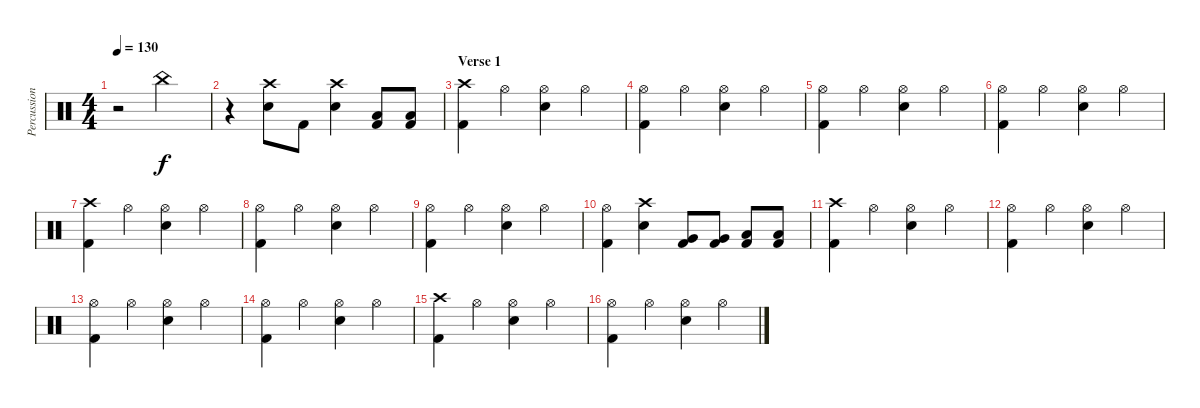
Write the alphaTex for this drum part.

\track ("Percussion" "Percussion") {instrument percussion}
\staff {score}
\articulation defaults
\ts (4 4)
\tempo 130
\clef neutral
\ks c
r.2{dy f} "China (hit)".2 |
r.4 ("Crash high (hit)" "Snare (hit) 2").8 "Kick (hit) 2".8 ("Crash high (hit)" "Snare (hit) 2").4 ("Low Floor Tom (hit)" "Kick (hit) 2").8 ("Low Floor Tom (hit)" "Kick (hit) 2").8 |
\section ("" "Verse 1")
("Crash high (hit)" "Kick (hit) 2").4 "Hi-Hat (open)".4 ("Hi-Hat (open)" "Snare (hit) 2").4 "Hi-Hat (open)".4 |
("Hi-Hat (open)" "Kick (hit) 2").4 "Hi-Hat (open)".4 ("Hi-Hat (open)" "Snare (hit) 2").4 "Hi-Hat (open)".4 |
("Hi-Hat (open)" "Kick (hit) 2").4 "Hi-Hat (open)".4 ("Hi-Hat (open)" "Snare (hit) 2").4 "Hi-Hat (open)".4 |
("Hi-Hat (open)" "Kick (hit) 2").4 "Hi-Hat (open)".4 ("Hi-Hat (open)" "Snare (hit) 2").4 "Hi-Hat (open)".4 |
("Crash high (hit)" "Kick (hit) 2").4 "Hi-Hat (open)".4 ("Hi-Hat (open)" "Snare (hit) 2").4 "Hi-Hat (open)".4 |
("Hi-Hat (open)" "Kick (hit) 2").4 "Hi-Hat (open)".4 ("Hi-Hat (open)" "Snare (hit) 2").4 "Hi-Hat (open)".4 |
("Hi-Hat (open)" "Kick (hit) 2").4 "Hi-Hat (open)".4 ("Hi-Hat (open)" "Snare (hit) 2").4 "Hi-Hat (open)".4 |
("Hi-Hat (open)" "Kick (hit) 2").4 ("Crash high (hit)" "Snare (hit) 2").4 ("Very Low Tom (hit)" "Kick (hit) 2").8 ("Very Low Tom (hit)" "Kick (hit) 2").8 ("Low Floor Tom (hit)" "Kick (hit) 2").8 ("Low Floor Tom (hit)" "Kick (hit) 2").8 |
("Crash high (hit)" "Kick (hit) 2").4 "Hi-Hat (open)".4 ("Hi-Hat (open)" "Snare (hit) 2").4 "Hi-Hat (open)".4 |
("Hi-Hat (open)" "Kick (hit) 2").4 "Hi-Hat (open)".4 ("Hi-Hat (open)" "Snare (hit) 2").4 "Hi-Hat (open)".4 |
("Hi-Hat (open)" "Kick (hit) 2").4 "Hi-Hat (open)".4 ("Hi-Hat (open)" "Snare (hit) 2").4 "Hi-Hat (open)".4 |
("Hi-Hat (open)" "Kick (hit) 2").4 "Hi-Hat (open)".4 ("Hi-Hat (open)" "Snare (hit) 2").4 "Hi-Hat (open)".4 |
("Crash high (hit)" "Kick (hit) 2").4 "Hi-Hat (open)".4 ("Hi-Hat (open)" "Snare (hit) 2").4 "Hi-Hat (open)".4 |
("Hi-Hat (open)" "Kick (hit) 2").4 "Hi-Hat (open)".4 ("Hi-Hat (open)" "Snare (hit) 2").4 "Hi-Hat (open)".4
